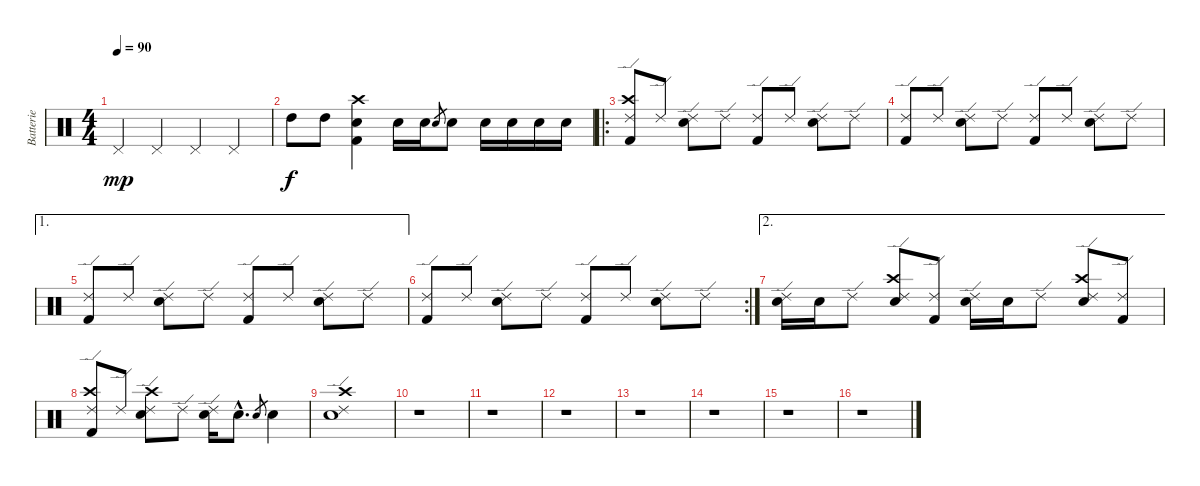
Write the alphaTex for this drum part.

\track ("Batterie" "Batterie") {instrument percussion}
\staff {score}
\articulation defaults
\ts (4 4)
\tempo 90
\clef neutral
\ks c "Pedal Hi-Hat (hit)".4{dy mp} "Pedal Hi-Hat (hit)".4 "Pedal Hi-Hat (hit)".4 "Pedal Hi-Hat (hit)".4
|
"High Tom (hit)".8{dy f} "High Tom (hit)".8 ("Kick (hit) 2" "Electric Snare (hit)" "Crash high (hit)").4 "Electric Snare (hit)".16 "Electric Snare (hit)".16 "Electric Snare (hit)".8{gr} "Electric Snare (hit)".8 "Electric Snare (hit)".16 "Electric Snare (hit)".16 "Electric Snare (hit)".16 "Electric Snare (hit)".16 |
\ro
("Ride (edge) 2" "Kick (hit) 2" "Crash high (hit)").8 "Ride (edge) 2".8 ("Ride (edge) 2" "Electric Snare (hit)").8 "Ride (edge) 2".8 ("Ride (edge) 2" "Kick (hit) 2").8 "Ride (edge) 2".8 ("Ride (edge) 2" "Electric Snare (hit)").8 "Ride (edge) 2".8 |
("Ride (edge) 2" "Kick (hit) 2").8 "Ride (edge) 2".8 ("Ride (edge) 2" "Electric Snare (hit)").8 "Ride (edge) 2".8 ("Ride (edge) 2" "Kick (hit) 2").8 "Ride (edge) 2".8 ("Ride (edge) 2" "Electric Snare (hit)").8 "Ride (edge) 2".8 |
\ae 1
("Ride (edge) 2" "Kick (hit) 2").8 "Ride (edge) 2".8 ("Ride (edge) 2" "Electric Snare (hit)").8 "Ride (edge) 2".8 ("Ride (edge) 2" "Kick (hit) 2").8 "Ride (edge) 2".8 ("Ride (edge) 2" "Electric Snare (hit)").8 "Ride (edge) 2".8 |
\rc 2
("Ride (edge) 2" "Kick (hit) 2").8 "Ride (edge) 2".8 ("Ride (edge) 2" "Electric Snare (hit)").8 "Ride (edge) 2".8 ("Ride (edge) 2" "Kick (hit) 2").8 "Ride (edge) 2".8 ("Ride (edge) 2" "Electric Snare (hit)").8 "Ride (edge) 2".8 |
\ae 2
("Ride (edge) 2" "Electric Snare (hit)").16 "Electric Snare (hit)".16 "Ride (edge) 2".8 ("Ride (edge) 2" "Electric Snare (hit)" "Crash high (hit)").8 ("Ride (edge) 2" "Kick (hit) 2").8 ("Ride (edge) 2" "Electric Snare (hit)").16 "Electric Snare (hit)".16 "Ride (edge) 2".8 ("Ride (edge) 2" "Electric Snare (hit)" "Crash high (hit)").8 ("Ride (edge) 2" "Kick (hit) 2").8 |
("Ride (edge) 2" "Kick (hit) 2" "Crash high (hit)").8 "Ride (edge) 2".8 ("Ride (edge) 2" "Electric Snare (hit)" "Crash high (hit)").8 "Ride (edge) 2".8 ("Ride (edge) 2" "Electric Snare (hit)").16 "Electric Snare (hit)"{hac}.8{d} "Electric Snare (hit)".8{gr} "Electric Snare (hit)".4 |
("Ride (edge) 2" "Electric Snare (hit)" "Crash high (hit)").1 |
r.1 |
r.1 |
r.1 |
r.1 |
r.1 |
r.1 |
r.1
